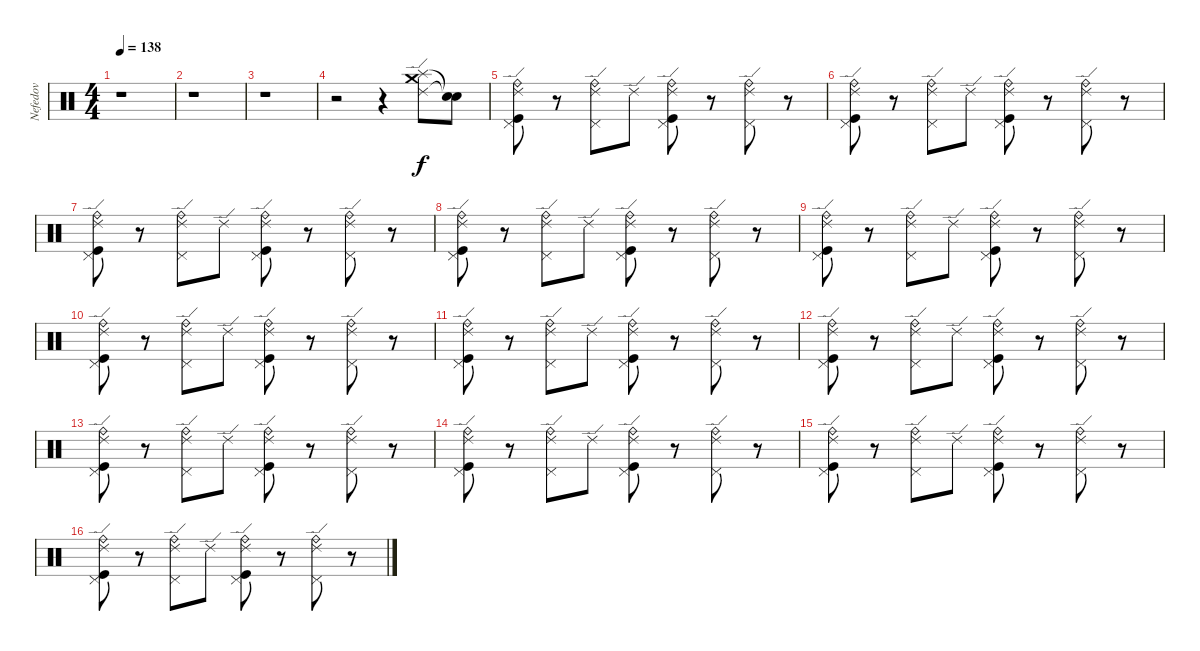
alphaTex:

\track ("Nefedov" "Nefedov") {instrument percussion}
\staff {score}
\articulation defaults
\ts (4 4)
\tempo 138
\clef neutral
\ks c
r.1{dy f} |
r.1 |
r.1 |
r.2 r.4 ("Splash (hit)" "Ride (edge) 2" "Crash medium (hit)").8 ("Snare (hit)"{t} "Snare (hit)"{t}).8 |
("Pedal Hi-Hat (hit)" "Ride (edge) 2" "Kick (hit)" "Ride (bell)").8 r.8 ("Pedal Hi-Hat (hit)" "Ride (edge) 2" "Ride (bell)").8 "Ride (edge) 2".8 ("Pedal Hi-Hat (hit)" "Ride (edge) 2" "Kick (hit)" "Ride (bell)").8 r.8 ("Pedal Hi-Hat (hit)" "Ride (edge) 2" "Ride (bell)").8 r.8 |
("Pedal Hi-Hat (hit)" "Ride (edge) 2" "Kick (hit)" "Ride (bell)").8 r.8 ("Pedal Hi-Hat (hit)" "Ride (edge) 2" "Ride (bell)").8 "Ride (edge) 2".8 ("Pedal Hi-Hat (hit)" "Ride (edge) 2" "Kick (hit)" "Ride (bell)").8 r.8 ("Pedal Hi-Hat (hit)" "Ride (edge) 2" "Ride (bell)").8 r.8 |
("Pedal Hi-Hat (hit)" "Ride (edge) 2" "Kick (hit)" "Ride (bell)").8 r.8 ("Pedal Hi-Hat (hit)" "Ride (edge) 2" "Ride (bell)").8 "Ride (edge) 2".8 ("Pedal Hi-Hat (hit)" "Ride (edge) 2" "Kick (hit)" "Ride (bell)").8 r.8 ("Pedal Hi-Hat (hit)" "Ride (edge) 2" "Ride (bell)").8 r.8 |
("Pedal Hi-Hat (hit)" "Ride (edge) 2" "Kick (hit)" "Ride (bell)").8 r.8 ("Pedal Hi-Hat (hit)" "Ride (edge) 2" "Ride (bell)").8 "Ride (edge) 2".8 ("Pedal Hi-Hat (hit)" "Ride (edge) 2" "Kick (hit)" "Ride (bell)").8 r.8 ("Pedal Hi-Hat (hit)" "Ride (edge) 2" "Ride (bell)").8 r.8 |
("Pedal Hi-Hat (hit)" "Ride (edge) 2" "Kick (hit)" "Ride (bell)").8 r.8 ("Pedal Hi-Hat (hit)" "Ride (edge) 2" "Ride (bell)").8 "Ride (edge) 2".8 ("Pedal Hi-Hat (hit)" "Ride (edge) 2" "Kick (hit)" "Ride (bell)").8 r.8 ("Pedal Hi-Hat (hit)" "Ride (edge) 2" "Ride (bell)").8 r.8 |
("Pedal Hi-Hat (hit)" "Ride (edge) 2" "Kick (hit)" "Ride (bell)").8 r.8 ("Pedal Hi-Hat (hit)" "Ride (edge) 2" "Ride (bell)").8 "Ride (edge) 2".8 ("Pedal Hi-Hat (hit)" "Ride (edge) 2" "Kick (hit)" "Ride (bell)").8 r.8 ("Pedal Hi-Hat (hit)" "Ride (edge) 2" "Ride (bell)").8 r.8 |
("Pedal Hi-Hat (hit)" "Ride (edge) 2" "Kick (hit)" "Ride (bell)").8 r.8 ("Pedal Hi-Hat (hit)" "Ride (edge) 2" "Ride (bell)").8 "Ride (edge) 2".8 ("Pedal Hi-Hat (hit)" "Ride (edge) 2" "Kick (hit)" "Ride (bell)").8 r.8 ("Pedal Hi-Hat (hit)" "Ride (edge) 2" "Ride (bell)").8 r.8 |
("Pedal Hi-Hat (hit)" "Ride (edge) 2" "Kick (hit)" "Ride (bell)").8 r.8 ("Pedal Hi-Hat (hit)" "Ride (edge) 2" "Ride (bell)").8 "Ride (edge) 2".8 ("Pedal Hi-Hat (hit)" "Ride (edge) 2" "Kick (hit)" "Ride (bell)").8 r.8 ("Pedal Hi-Hat (hit)" "Ride (edge) 2" "Ride (bell)").8 r.8 |
("Pedal Hi-Hat (hit)" "Ride (edge) 2" "Kick (hit)" "Ride (bell)").8 r.8 ("Pedal Hi-Hat (hit)" "Ride (edge) 2" "Ride (bell)").8 "Ride (edge) 2".8 ("Pedal Hi-Hat (hit)" "Ride (edge) 2" "Kick (hit)" "Ride (bell)").8 r.8 ("Pedal Hi-Hat (hit)" "Ride (edge) 2" "Ride (bell)").8 r.8 |
("Pedal Hi-Hat (hit)" "Ride (edge) 2" "Kick (hit)" "Ride (bell)").8 r.8 ("Pedal Hi-Hat (hit)" "Ride (edge) 2" "Ride (bell)").8 "Ride (edge) 2".8 ("Pedal Hi-Hat (hit)" "Ride (edge) 2" "Kick (hit)" "Ride (bell)").8 r.8 ("Pedal Hi-Hat (hit)" "Ride (edge) 2" "Ride (bell)").8 r.8 |
("Pedal Hi-Hat (hit)" "Ride (edge) 2" "Kick (hit)" "Ride (bell)").8 r.8 ("Pedal Hi-Hat (hit)" "Ride (edge) 2" "Ride (bell)").8 "Ride (edge) 2".8 ("Pedal Hi-Hat (hit)" "Ride (edge) 2" "Kick (hit)" "Ride (bell)").8 r.8 ("Pedal Hi-Hat (hit)" "Ride (edge) 2" "Ride (bell)").8 r.8 |
("Pedal Hi-Hat (hit)" "Ride (edge) 2" "Kick (hit)" "Ride (bell)").8 r.8 ("Pedal Hi-Hat (hit)" "Ride (edge) 2" "Ride (bell)").8 "Ride (edge) 2".8 ("Pedal Hi-Hat (hit)" "Ride (edge) 2" "Kick (hit)" "Ride (bell)").8 r.8 ("Pedal Hi-Hat (hit)" "Ride (edge) 2" "Ride (bell)").8 r.8
